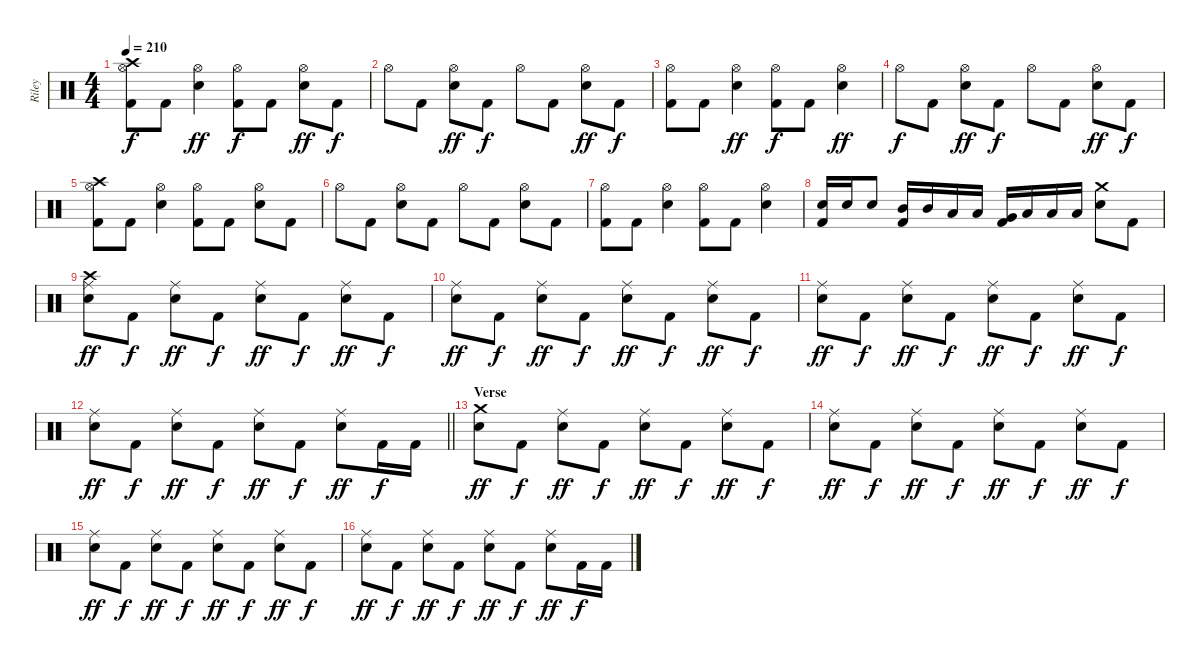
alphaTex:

\track ("Riley" "Riley") {instrument percussion}
\staff {score}
\articulation defaults
\ts (4 4)
\tempo 210
\clef neutral
\ks c
("Crash high (hit)" "Hi-Hat (open)" "Kick (hit) 2").8{dy f} "Kick (hit) 2".8 ("Hi-Hat (open)" "Electric Snare (hit)").4{dy ff} ("Hi-Hat (open)" "Kick (hit) 2").8{dy f} "Kick (hit) 2".8 ("Hi-Hat (open)" "Electric Snare (hit)").8{dy ff} "Kick (hit) 2".8{dy f} |
"Hi-Hat (open)".8 "Kick (hit) 2".8 ("Hi-Hat (open)" "Electric Snare (hit)").8{dy ff} "Kick (hit) 2".8{dy f} "Hi-Hat (open)".8 "Kick (hit) 2".8 ("Hi-Hat (open)" "Electric Snare (hit)").8{dy ff} "Kick (hit) 2".8{dy f} |
("Hi-Hat (open)" "Kick (hit) 2").8 "Kick (hit) 2".8 ("Hi-Hat (open)" "Electric Snare (hit)").4{dy ff} ("Hi-Hat (open)" "Kick (hit) 2").8{dy f} "Kick (hit) 2".8 ("Hi-Hat (open)" "Electric Snare (hit)").4{dy ff} |
"Hi-Hat (open)".8{dy f} "Kick (hit) 2".8 ("Hi-Hat (open)" "Electric Snare (hit)").8{dy ff} "Kick (hit) 2".8{dy f} "Hi-Hat (open)".8 "Kick (hit) 2".8 ("Hi-Hat (open)" "Electric Snare (hit)").8{dy ff} "Kick (hit) 2".8{dy f} |
("Crash high (hit)" "Hi-Hat (open)" "Kick (hit) 2").8 "Kick (hit) 2".8 ("Hi-Hat (open)" "Electric Snare (hit)").4 ("Hi-Hat (open)" "Kick (hit) 2").8 "Kick (hit) 2".8 ("Hi-Hat (open)" "Electric Snare (hit)").8 "Kick (hit) 2".8 |
"Hi-Hat (open)".8 "Kick (hit) 2".8 ("Hi-Hat (open)" "Electric Snare (hit)").8 "Kick (hit) 2".8 "Hi-Hat (open)".8 "Kick (hit) 2".8 ("Hi-Hat (open)" "Electric Snare (hit)").8 "Kick (hit) 2".8 |
("Hi-Hat (open)" "Kick (hit) 2").8 "Kick (hit) 2".8 ("Hi-Hat (open)" "Electric Snare (hit)").4 ("Hi-Hat (open)" "Kick (hit) 2").8 "Kick (hit) 2".8 ("Hi-Hat (open)" "Electric Snare (hit)").4 |
("Electric Snare (hit)" "Kick (hit) 2").16 "Electric Snare (hit)".16 "Electric Snare (hit)".8 ("Mid Tom (hit)" "Kick (hit) 2").16 "Mid Tom (hit)".16 "Low Tom (hit)".16 "Low Tom (hit)".16 ("Very Low Tom (hit)" "Kick (hit) 2").16 "Low Tom (hit)".16 "Low Tom (hit)".16 "Low Tom (hit)".16 ("Crash medium (hit)" "Electric Snare (hit)").8 "Kick (hit) 2".8 |
("Crash high (hit)" "Ride (middle)" "Electric Snare (hit)").8{dy ff} "Kick (hit) 2".8{dy f} ("Ride (middle)" "Electric Snare (hit)").8{dy ff} "Kick (hit) 2".8{dy f} ("Ride (middle)" "Electric Snare (hit)").8{dy ff} "Kick (hit) 2".8{dy f} ("Ride (middle)" "Electric Snare (hit)").8{dy ff} "Kick (hit) 2".8{dy f} |
("Ride (middle)" "Electric Snare (hit)").8{dy ff} "Kick (hit) 2".8{dy f} ("Ride (middle)" "Electric Snare (hit)").8{dy ff} "Kick (hit) 2".8{dy f} ("Ride (middle)" "Electric Snare (hit)").8{dy ff} "Kick (hit) 2".8{dy f} ("Ride (middle)" "Electric Snare (hit)").8{dy ff} "Kick (hit) 2".8{dy f} |
("Ride (middle)" "Electric Snare (hit)").8{dy ff} "Kick (hit) 2".8{dy f} ("Ride (middle)" "Electric Snare (hit)").8{dy ff} "Kick (hit) 2".8{dy f} ("Ride (middle)" "Electric Snare (hit)").8{dy ff} "Kick (hit) 2".8{dy f} ("Ride (middle)" "Electric Snare (hit)").8{dy ff} "Kick (hit) 2".8{dy f} |
\barLineRight lightlight
("Ride (middle)" "Electric Snare (hit)").8{dy ff} "Kick (hit) 2".8{dy f} ("Ride (middle)" "Electric Snare (hit)").8{dy ff} "Kick (hit) 2".8{dy f} ("Ride (middle)" "Electric Snare (hit)").8{dy ff} "Kick (hit) 2".8{dy f} ("Ride (middle)" "Electric Snare (hit)").8{dy ff} "Kick (hit) 2".16{dy f} "Kick (hit) 2".16 |
\section ("" "Verse")
("Crash medium (hit)" "Electric Snare (hit)").8{dy ff} "Kick (hit) 2".8{dy f} ("Ride (middle)" "Electric Snare (hit)").8{dy ff} "Kick (hit) 2".8{dy f} ("Ride (middle)" "Electric Snare (hit)").8{dy ff} "Kick (hit) 2".8{dy f} ("Ride (middle)" "Electric Snare (hit)").8{dy ff} "Kick (hit) 2".8{dy f} |
("Ride (middle)" "Electric Snare (hit)").8{dy ff} "Kick (hit) 2".8{dy f} ("Ride (middle)" "Electric Snare (hit)").8{dy ff} "Kick (hit) 2".8{dy f} ("Ride (middle)" "Electric Snare (hit)").8{dy ff} "Kick (hit) 2".8{dy f} ("Ride (middle)" "Electric Snare (hit)").8{dy ff} "Kick (hit) 2".8{dy f} |
("Ride (middle)" "Electric Snare (hit)").8{dy ff} "Kick (hit) 2".8{dy f} ("Ride (middle)" "Electric Snare (hit)").8{dy ff} "Kick (hit) 2".8{dy f} ("Ride (middle)" "Electric Snare (hit)").8{dy ff} "Kick (hit) 2".8{dy f} ("Ride (middle)" "Electric Snare (hit)").8{dy ff} "Kick (hit) 2".8{dy f} |
("Ride (middle)" "Electric Snare (hit)").8{dy ff} "Kick (hit) 2".8{dy f} ("Ride (middle)" "Electric Snare (hit)").8{dy ff} "Kick (hit) 2".8{dy f} ("Ride (middle)" "Electric Snare (hit)").8{dy ff} "Kick (hit) 2".8{dy f} ("Ride (middle)" "Electric Snare (hit)").8{dy ff} "Kick (hit) 2".16{dy f} "Kick (hit) 2".16
